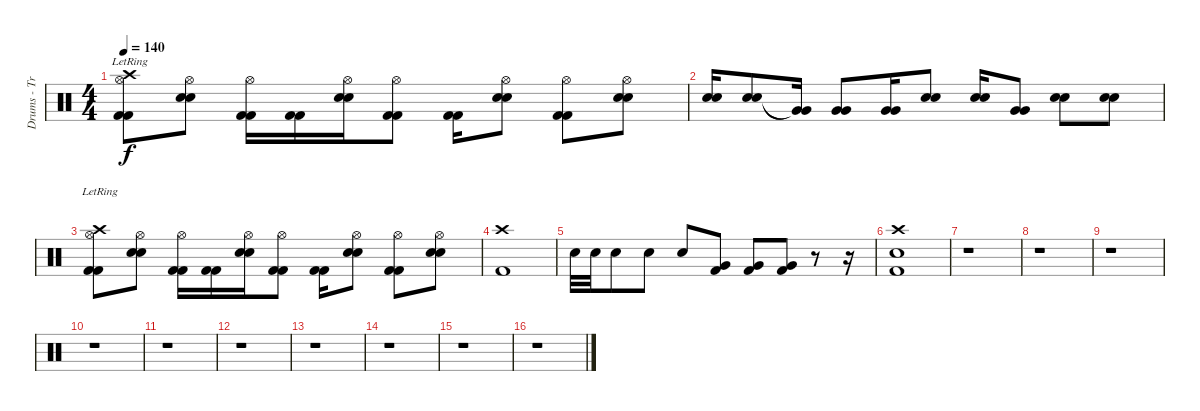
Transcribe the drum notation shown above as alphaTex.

\track ("Drums - Travis Barker" "Drums - Tr") {instrument percussion}
\staff {score}
\articulation defaults
\ts (4 4)
\tempo 140
\clef neutral
\ks c
("Kick (hit) 2" "Kick (hit) 2" "Hi-Hat (open)" "Crash high (hit)"{lr}).8{dy f} ("Snare (hit) 2" "Snare (hit) 2" "Hi-Hat (open)").8 ("Kick (hit) 2" "Kick (hit) 2" "Hi-Hat (open)").16 ("Kick (hit) 2" "Kick (hit) 2").16 ("Snare (hit) 2" "Snare (hit) 2" "Hi-Hat (open)").16 ("Kick (hit) 2" "Kick (hit) 2" "Hi-Hat (open)").8 ("Kick (hit) 2" "Kick (hit) 2").16 ("Snare (hit) 2" "Snare (hit) 2" "Hi-Hat (open)").8 ("Kick (hit) 2" "Kick (hit) 2" "Hi-Hat (open)").8 ("Snare (hit) 2" "Snare (hit) 2" "Hi-Hat (open)").8 |
("Snare (hit) 2" "Snare (hit) 2").16 ("Snare (hit) 2" "Snare (hit) 2").8 ("Very Low Tom (hit)"{t} "Very Low Tom (hit)"{t}).16 ("Very Low Tom (hit)" "Very Low Tom (hit)").8 ("Very Low Tom (hit)" "Very Low Tom (hit)").16 ("Snare (hit) 2" "Snare (hit) 2").8 ("Snare (hit) 2" "Snare (hit) 2").16 ("Very Low Tom (hit)" "Very Low Tom (hit)").8 ("Snare (hit) 2" "Snare (hit) 2").8 ("Snare (hit) 2" "Snare (hit) 2").8 |
("Kick (hit) 2" "Kick (hit) 2" "Hi-Hat (open)" "Crash high (hit)"{lr}).8 ("Snare (hit) 2" "Snare (hit) 2" "Hi-Hat (open)").8 ("Kick (hit) 2" "Kick (hit) 2" "Hi-Hat (open)").16 ("Kick (hit) 2" "Kick (hit) 2").16 ("Snare (hit) 2" "Snare (hit) 2" "Hi-Hat (open)").16 ("Kick (hit) 2" "Kick (hit) 2" "Hi-Hat (open)").8 ("Kick (hit) 2" "Kick (hit) 2").16 ("Snare (hit) 2" "Snare (hit) 2" "Hi-Hat (open)").8 ("Kick (hit) 2" "Kick (hit) 2" "Hi-Hat (open)").8 ("Snare (hit) 2" "Snare (hit) 2" "Hi-Hat (open)").8 |
("Crash high (hit)" "Kick (hit) 2").1 |
"Snare (hit) 2".32 "Snare (hit) 2".32 "Snare (hit) 2".8 "Snare (hit) 2".8 "Snare (hit) 2".8 ("Very Low Tom (hit)" "Kick (hit) 2").8 ("Very Low Tom (hit)" "Kick (hit) 2").8 ("Very Low Tom (hit)" "Kick (hit) 2").8 r.8 r.16 |
("Crash high (hit)" "Snare (hit) 2" "Kick (hit) 2").1 |
r.1 |
r.1 |
r.1 |
r.1 |
r.1 |
r.1 |
r.1 |
r.1 |
r.1 |
r.1
